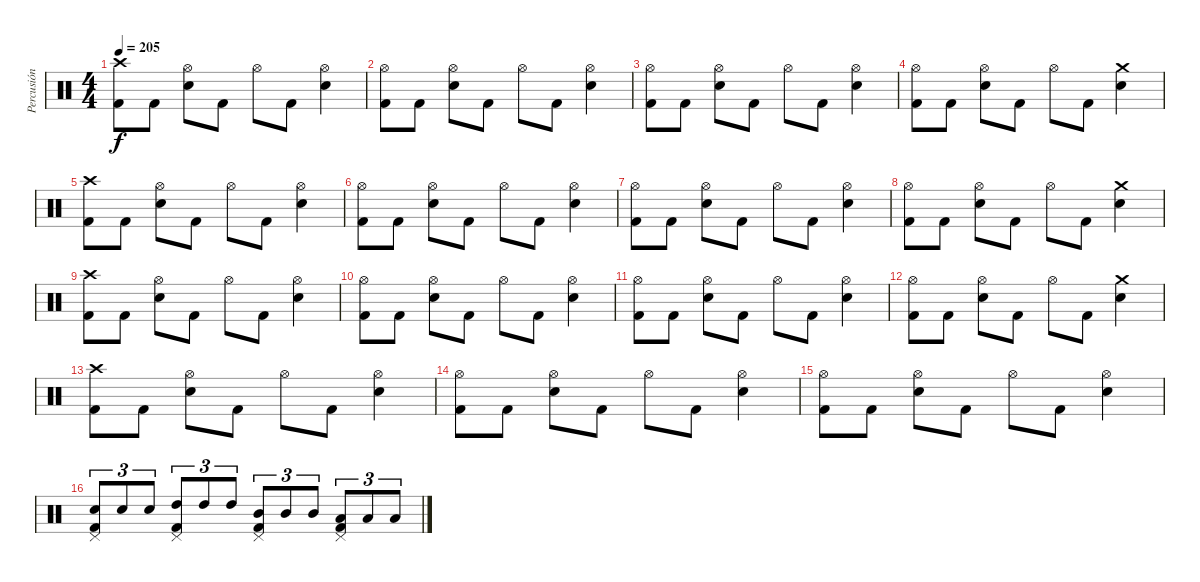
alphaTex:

\track ("Percusión" "Percusión") {instrument percussion}
\staff {score}
\articulation defaults
\ts (4 4)
\tempo 205
\clef neutral
\ks c
("Crash high (hit)" "Kick (hit) 2").8{dy f} "Kick (hit) 2".8 ("Hi-Hat (open)" "Snare (hit) 2").8 "Kick (hit) 2".8 "Hi-Hat (open)".8 "Kick (hit) 2".8 ("Snare (hit) 2" "Hi-Hat (open)").4 |
("Hi-Hat (open)" "Kick (hit) 2").8 "Kick (hit) 2".8 ("Hi-Hat (open)" "Snare (hit) 2").8 "Kick (hit) 2".8 "Hi-Hat (open)".8 "Kick (hit) 2".8 ("Snare (hit) 2" "Hi-Hat (open)").4 |
("Hi-Hat (open)" "Kick (hit) 2").8 "Kick (hit) 2".8 ("Hi-Hat (open)" "Snare (hit) 2").8 "Kick (hit) 2".8 "Hi-Hat (open)".8 "Kick (hit) 2".8 ("Snare (hit) 2" "Hi-Hat (open)").4 |
("Hi-Hat (open)" "Kick (hit) 2").8 "Kick (hit) 2".8 ("Hi-Hat (open)" "Snare (hit) 2").8 "Kick (hit) 2".8 "Hi-Hat (open)".8 "Kick (hit) 2".8 ("Snare (hit) 2" "Crash medium (hit)").4 |
("Crash high (hit)" "Kick (hit) 2").8 "Kick (hit) 2".8 ("Hi-Hat (open)" "Snare (hit) 2").8 "Kick (hit) 2".8 "Hi-Hat (open)".8 "Kick (hit) 2".8 ("Snare (hit) 2" "Hi-Hat (open)").4 |
("Hi-Hat (open)" "Kick (hit) 2").8 "Kick (hit) 2".8 ("Hi-Hat (open)" "Snare (hit) 2").8 "Kick (hit) 2".8 "Hi-Hat (open)".8 "Kick (hit) 2".8 ("Snare (hit) 2" "Hi-Hat (open)").4 |
("Hi-Hat (open)" "Kick (hit) 2").8 "Kick (hit) 2".8 ("Hi-Hat (open)" "Snare (hit) 2").8 "Kick (hit) 2".8 "Hi-Hat (open)".8 "Kick (hit) 2".8 ("Snare (hit) 2" "Hi-Hat (open)").4 |
("Hi-Hat (open)" "Kick (hit) 2").8 "Kick (hit) 2".8 ("Hi-Hat (open)" "Snare (hit) 2").8 "Kick (hit) 2".8 "Hi-Hat (open)".8 "Kick (hit) 2".8 ("Snare (hit) 2" "Crash medium (hit)").4 |
("Crash high (hit)" "Kick (hit) 2").8 "Kick (hit) 2".8 ("Hi-Hat (open)" "Snare (hit) 2").8 "Kick (hit) 2".8 "Hi-Hat (open)".8 "Kick (hit) 2".8 ("Snare (hit) 2" "Hi-Hat (open)").4 |
("Hi-Hat (open)" "Kick (hit) 2").8 "Kick (hit) 2".8 ("Hi-Hat (open)" "Snare (hit) 2").8 "Kick (hit) 2".8 "Hi-Hat (open)".8 "Kick (hit) 2".8 ("Snare (hit) 2" "Hi-Hat (open)").4 |
("Hi-Hat (open)" "Kick (hit) 2").8 "Kick (hit) 2".8 ("Hi-Hat (open)" "Snare (hit) 2").8 "Kick (hit) 2".8 "Hi-Hat (open)".8 "Kick (hit) 2".8 ("Snare (hit) 2" "Hi-Hat (open)").4 |
("Hi-Hat (open)" "Kick (hit) 2").8 "Kick (hit) 2".8 ("Hi-Hat (open)" "Snare (hit) 2").8 "Kick (hit) 2".8 "Hi-Hat (open)".8 "Kick (hit) 2".8 ("Snare (hit) 2" "Crash medium (hit)").4 |
("Crash high (hit)" "Kick (hit) 2").8 "Kick (hit) 2".8 ("Hi-Hat (open)" "Snare (hit) 2").8 "Kick (hit) 2".8 "Hi-Hat (open)".8 "Kick (hit) 2".8 ("Snare (hit) 2" "Hi-Hat (open)").4 |
("Hi-Hat (open)" "Kick (hit) 2").8 "Kick (hit) 2".8 ("Hi-Hat (open)" "Snare (hit) 2").8 "Kick (hit) 2".8 "Hi-Hat (open)".8 "Kick (hit) 2".8 ("Snare (hit) 2" "Hi-Hat (open)").4 |
("Hi-Hat (open)" "Kick (hit) 2").8 "Kick (hit) 2".8 ("Hi-Hat (open)" "Snare (hit) 2").8 "Kick (hit) 2".8 "Hi-Hat (open)".8 "Kick (hit) 2".8 ("Snare (hit) 2" "Hi-Hat (open)").4 |
("Pedal Hi-Hat (hit)" "Snare (hit) 2" "Kick (hit) 2").8{tu (3 2)} "Snare (hit) 2".8{tu (3 2)} "Snare (hit) 2".8{tu (3 2)} ("Pedal Hi-Hat (hit)" "High Tom (hit)" "Kick (hit) 2").8{tu (3 2)} "High Tom (hit)".8{tu (3 2)} "High Tom (hit)".8{tu (3 2)} ("Pedal Hi-Hat (hit)" "Mid Tom (hit)" "Kick (hit) 2").8{tu (3 2)} "Mid Tom (hit)".8{tu (3 2)} "Mid Tom (hit)".8{tu (3 2)} ("Pedal Hi-Hat (hit)" "Low Tom (hit)" "Kick (hit) 2").8{tu (3 2)} "Low Tom (hit)".8{tu (3 2)} "Low Tom (hit)".8{tu (3 2)}
